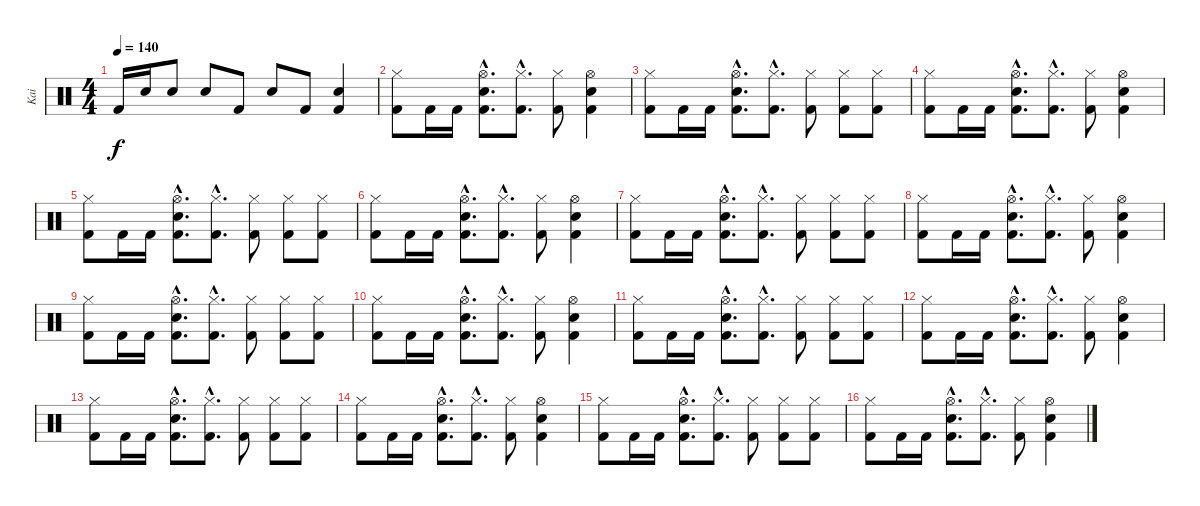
\track ("Kai" "Kai") {instrument percussion}
\staff {score}
\articulation defaults
\ts (4 4)
\tempo 140
\clef neutral
\ks c "Kick (hit) 2".16{dy f} "Snare (hit) 2".16 "Snare (hit) 2".8 "Snare (hit) 2".8 "Kick (hit) 2".8 "Snare (hit) 2".8 "Kick (hit) 2".8
("Kick (hit) 2" "Snare (hit) 2").4 |
("Kick (hit) 2" "Hi-Hat (closed)").8 "Kick (hit) 2".16 "Kick (hit) 2".16 ("Kick (hit) 2"{hac} "Electric Snare (hit)"{hac} "Hi-Hat (open)"{hac}).8{d} ("Kick (hit) 2"{hac} "Hi-Hat (closed)"{hac}).8{d} ("Kick (hit) 2" "Hi-Hat (closed)").8 ("Kick (hit) 2" "Electric Snare (hit)" "Hi-Hat (open)").4 |
("Kick (hit) 2" "Hi-Hat (closed)").8 "Kick (hit) 2".16 "Kick (hit) 2".16 ("Kick (hit) 2"{hac} "Electric Snare (hit)"{hac} "Hi-Hat (open)"{hac}).8{d} ("Kick (hit) 2"{hac} "Hi-Hat (closed)"{hac}).8{d} ("Kick (hit) 2" "Hi-Hat (closed)").8 ("Kick (hit) 2" "Hi-Hat (closed)").8 ("Kick (hit) 2" "Hi-Hat (closed)").8 |
("Kick (hit) 2" "Hi-Hat (closed)").8 "Kick (hit) 2".16 "Kick (hit) 2".16 ("Kick (hit) 2"{hac} "Electric Snare (hit)"{hac} "Hi-Hat (open)"{hac}).8{d} ("Kick (hit) 2"{hac} "Hi-Hat (closed)"{hac}).8{d} ("Kick (hit) 2" "Hi-Hat (closed)").8 ("Kick (hit) 2" "Electric Snare (hit)" "Hi-Hat (open)").4 |
("Kick (hit) 2" "Hi-Hat (closed)").8 "Kick (hit) 2".16 "Kick (hit) 2".16 ("Kick (hit) 2"{hac} "Electric Snare (hit)"{hac} "Hi-Hat (open)"{hac}).8{d} ("Kick (hit) 2"{hac} "Hi-Hat (closed)"{hac}).8{d} ("Kick (hit) 2" "Hi-Hat (closed)").8 ("Kick (hit) 2" "Hi-Hat (closed)").8 ("Kick (hit) 2" "Hi-Hat (closed)").8 |
("Kick (hit) 2" "Hi-Hat (closed)").8 "Kick (hit) 2".16 "Kick (hit) 2".16 ("Kick (hit) 2"{hac} "Electric Snare (hit)"{hac} "Hi-Hat (open)"{hac}).8{d} ("Kick (hit) 2"{hac} "Hi-Hat (closed)"{hac}).8{d} ("Kick (hit) 2" "Hi-Hat (closed)").8 ("Kick (hit) 2" "Electric Snare (hit)" "Hi-Hat (open)").4 |
("Kick (hit) 2" "Hi-Hat (closed)").8 "Kick (hit) 2".16 "Kick (hit) 2".16 ("Kick (hit) 2"{hac} "Electric Snare (hit)"{hac} "Hi-Hat (open)"{hac}).8{d} ("Kick (hit) 2"{hac} "Hi-Hat (closed)"{hac}).8{d} ("Kick (hit) 2" "Hi-Hat (closed)").8 ("Kick (hit) 2" "Hi-Hat (closed)").8 ("Kick (hit) 2" "Hi-Hat (closed)").8 |
("Kick (hit) 2" "Hi-Hat (closed)").8 "Kick (hit) 2".16 "Kick (hit) 2".16 ("Kick (hit) 2"{hac} "Electric Snare (hit)"{hac} "Hi-Hat (open)"{hac}).8{d} ("Kick (hit) 2"{hac} "Hi-Hat (closed)"{hac}).8{d} ("Kick (hit) 2" "Hi-Hat (closed)").8 ("Kick (hit) 2" "Electric Snare (hit)" "Hi-Hat (open)").4 |
("Kick (hit) 2" "Hi-Hat (closed)").8 "Kick (hit) 2".16 "Kick (hit) 2".16 ("Kick (hit) 2"{hac} "Electric Snare (hit)"{hac} "Hi-Hat (open)"{hac}).8{d} ("Kick (hit) 2"{hac} "Hi-Hat (closed)"{hac}).8{d} ("Kick (hit) 2" "Hi-Hat (closed)").8 ("Kick (hit) 2" "Hi-Hat (closed)").8 ("Kick (hit) 2" "Hi-Hat (closed)").8 |
("Kick (hit) 2" "Hi-Hat (closed)").8 "Kick (hit) 2".16 "Kick (hit) 2".16 ("Kick (hit) 2"{hac} "Electric Snare (hit)"{hac} "Hi-Hat (open)"{hac}).8{d} ("Kick (hit) 2"{hac} "Hi-Hat (closed)"{hac}).8{d} ("Kick (hit) 2" "Hi-Hat (closed)").8 ("Kick (hit) 2" "Electric Snare (hit)" "Hi-Hat (open)").4 |
("Kick (hit) 2" "Hi-Hat (closed)").8 "Kick (hit) 2".16 "Kick (hit) 2".16 ("Kick (hit) 2"{hac} "Electric Snare (hit)"{hac} "Hi-Hat (open)"{hac}).8{d} ("Kick (hit) 2"{hac} "Hi-Hat (closed)"{hac}).8{d} ("Kick (hit) 2" "Hi-Hat (closed)").8 ("Kick (hit) 2" "Hi-Hat (closed)").8 ("Kick (hit) 2" "Hi-Hat (closed)").8 |
("Kick (hit) 2" "Hi-Hat (closed)").8 "Kick (hit) 2".16 "Kick (hit) 2".16 ("Kick (hit) 2"{hac} "Electric Snare (hit)"{hac} "Hi-Hat (open)"{hac}).8{d} ("Kick (hit) 2"{hac} "Hi-Hat (closed)"{hac}).8{d} ("Kick (hit) 2" "Hi-Hat (closed)").8 ("Kick (hit) 2" "Electric Snare (hit)" "Hi-Hat (open)").4 |
("Kick (hit) 2" "Hi-Hat (closed)").8 "Kick (hit) 2".16 "Kick (hit) 2".16 ("Kick (hit) 2"{hac} "Electric Snare (hit)"{hac} "Hi-Hat (open)"{hac}).8{d} ("Kick (hit) 2"{hac} "Hi-Hat (closed)"{hac}).8{d} ("Kick (hit) 2" "Hi-Hat (closed)").8 ("Kick (hit) 2" "Hi-Hat (closed)").8 ("Kick (hit) 2" "Hi-Hat (closed)").8 |
("Kick (hit) 2" "Hi-Hat (closed)").8 "Kick (hit) 2".16 "Kick (hit) 2".16 ("Kick (hit) 2"{hac} "Electric Snare (hit)"{hac} "Hi-Hat (open)"{hac}).8{d} ("Kick (hit) 2"{hac} "Hi-Hat (closed)"{hac}).8{d} ("Kick (hit) 2" "Hi-Hat (closed)").8 ("Kick (hit) 2" "Electric Snare (hit)" "Hi-Hat (open)").4 |
("Kick (hit) 2" "Hi-Hat (closed)").8 "Kick (hit) 2".16 "Kick (hit) 2".16 ("Kick (hit) 2"{hac} "Electric Snare (hit)"{hac} "Hi-Hat (open)"{hac}).8{d} ("Kick (hit) 2"{hac} "Hi-Hat (closed)"{hac}).8{d} ("Kick (hit) 2" "Hi-Hat (closed)").8 ("Kick (hit) 2" "Hi-Hat (closed)").8 ("Kick (hit) 2" "Hi-Hat (closed)").8 |
("Kick (hit) 2" "Hi-Hat (closed)").8 "Kick (hit) 2".16 "Kick (hit) 2".16 ("Kick (hit) 2"{hac} "Electric Snare (hit)"{hac} "Hi-Hat (open)"{hac}).8{d} ("Kick (hit) 2"{hac} "Hi-Hat (closed)"{hac}).8{d} ("Kick (hit) 2" "Hi-Hat (closed)").8 ("Kick (hit) 2" "Electric Snare (hit)" "Hi-Hat (open)").4
